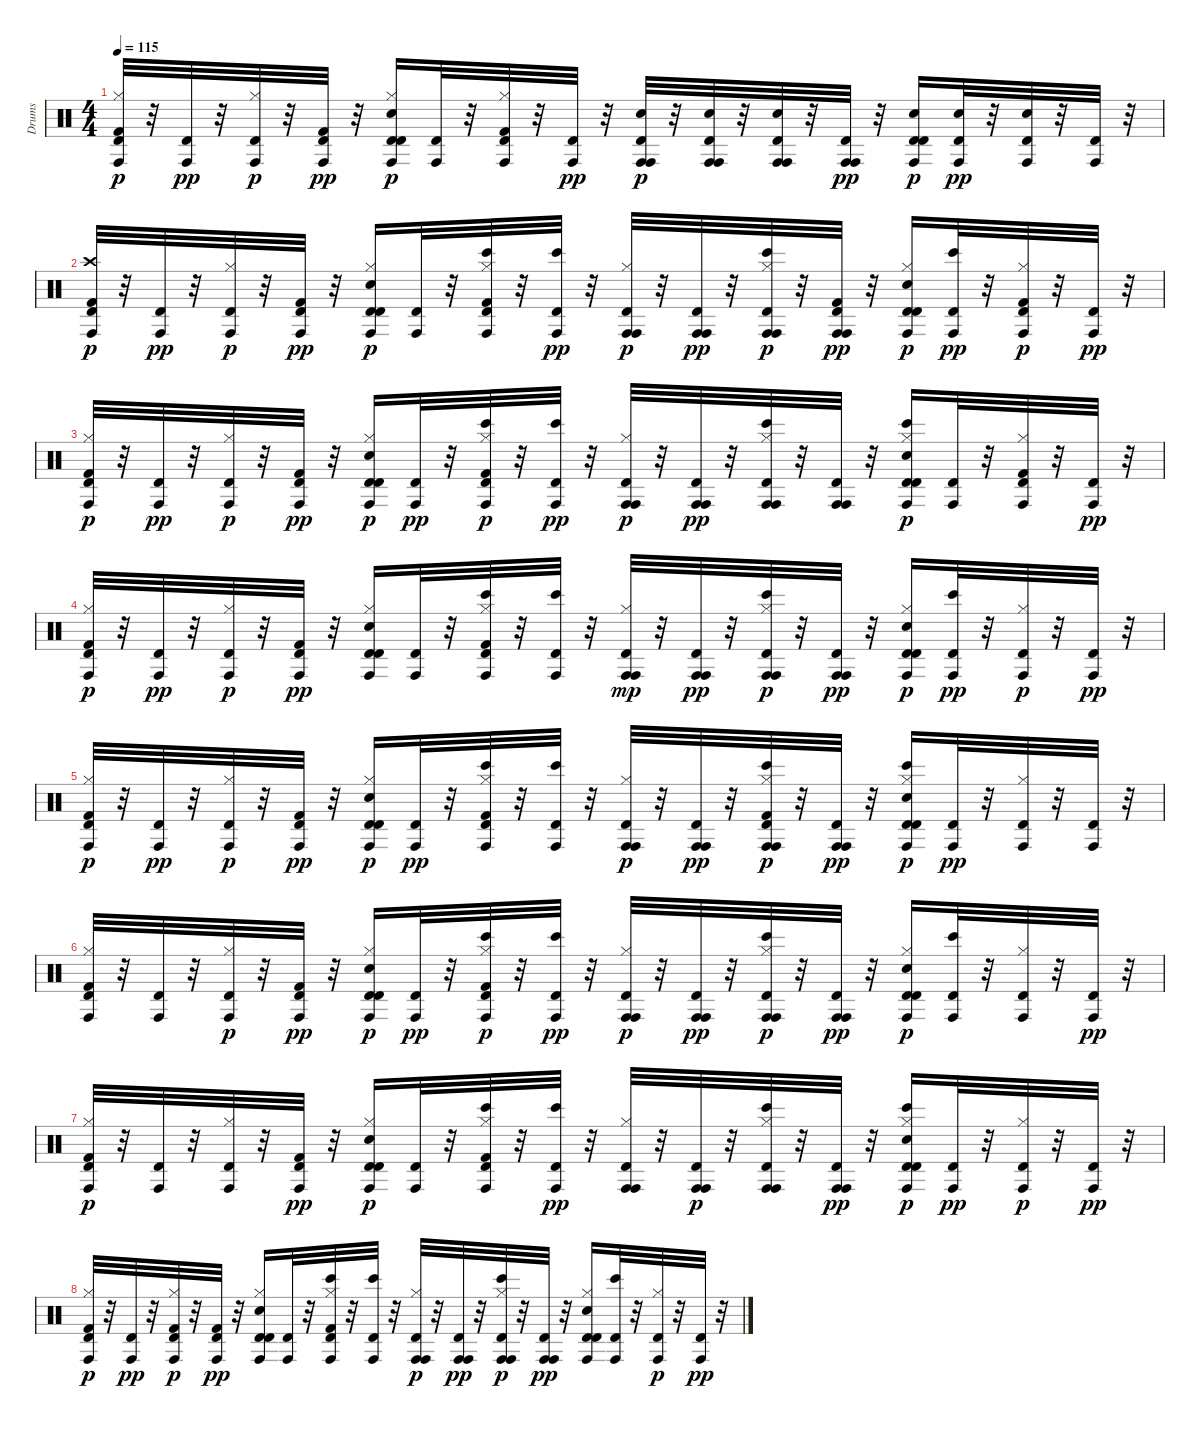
\track ("Drums" "Drums") {instrument percussion}
\staff {score}
\articulation defaults
\ts (4 4)
\tempo 115
\clef neutral
\ks c
("Conga high (hit)" "Hi-Hat (closed)" "Kick (hit) 2" "Timbale high (hit)").32{dy p} r.32 ("Conga high (hit)" "Timbale high (hit)").32{dy pp} r.32 ("Conga high (hit)" "Hi-Hat (closed)" "Timbale high (hit)").32{dy p} r.32 ("Conga high (hit)" "Kick (hit) 2" "Timbale high (hit)").32{dy pp} r.32 ("Conga high (hit)" "Timbale high (hit)" "Hi-Hat (closed)" "Electric Snare (hit)" "Timbale high (hit)").16{dy p} ("Conga high (hit)" "Timbale high (hit)").32 r.32 ("Conga high (hit)" "Hi-Hat (closed)" "Kick (hit) 2" "Timbale high (hit)").32 r.32 ("Conga high (hit)" "Timbale high (hit)").32{dy pp} r.32 ("Conga high (hit)" "Conga high (hit)" "Electric Snare (hit)" "Timbale high (hit)").32{dy p} r.32 ("Conga high (hit)" "Conga high (hit)" "Electric Snare (hit)" "Timbale high (hit)").32 r.32 ("Conga high (hit)" "Conga high (hit)" "Electric Snare (hit)" "Timbale high (hit)").32 r.32 ("Conga high (hit)" "Conga high (hit)" "Timbale high (hit)").32{dy pp} r.32 ("Conga high (hit)" "Timbale high (hit)" "Electric Snare (hit)" "Timbale high (hit)").16{dy p} ("Conga high (hit)" "Electric Snare (hit)" "Timbale high (hit)").32{dy pp} r.32 ("Conga high (hit)" "Electric Snare (hit)" "Timbale high (hit)").32 r.32 ("Conga high (hit)" "Timbale high (hit)").32 r.32 |
("Conga high (hit)" "Crash high (hit)" "Kick (hit) 2" "Timbale high (hit)").32{dy p} r.32 ("Conga high (hit)" "Timbale high (hit)").32{dy pp} r.32 ("Conga high (hit)" "Hi-Hat (closed)" "Timbale high (hit)").32{dy p} r.32 ("Conga high (hit)" "Kick (hit) 2" "Timbale high (hit)").32{dy pp} r.32 ("Conga high (hit)" "Timbale high (hit)" "Hi-Hat (closed)" "Electric Snare (hit)" "Timbale high (hit)").16{dy p} ("Conga high (hit)" "Timbale high (hit)").32 r.32 ("Conga high (hit)" "Bongo High (hit)" "Hi-Hat (closed)" "Kick (hit) 2" "Timbale high (hit)").32 r.32 ("Conga high (hit)" "Bongo High (hit)" "Timbale high (hit)").32{dy pp} r.32 ("Conga high (hit)" "Conga high (hit)" "Hi-Hat (closed)" "Timbale high (hit)").32{dy p} r.32 ("Conga high (hit)" "Conga high (hit)" "Timbale high (hit)").32{dy pp} r.32 ("Conga high (hit)" "Conga high (hit)" "Bongo High (hit)" "Hi-Hat (closed)" "Timbale high (hit)").32{dy p} r.32 ("Conga high (hit)" "Conga high (hit)" "Kick (hit) 2" "Timbale high (hit)").32{dy pp} r.32 ("Conga high (hit)" "Timbale high (hit)" "Hi-Hat (closed)" "Electric Snare (hit)" "Timbale high (hit)").16{dy p} ("Conga high (hit)" "Bongo High (hit)" "Timbale high (hit)").32{dy pp} r.32 ("Conga high (hit)" "Kick (hit) 2" "Hi-Hat (closed)" "Timbale high (hit)").32{dy p} r.32 ("Conga high (hit)" "Timbale high (hit)").32{dy pp} r.32 |
("Conga high (hit)" "Hi-Hat (closed)" "Kick (hit) 2" "Timbale high (hit)").32{dy p} r.32 ("Conga high (hit)" "Timbale high (hit)").32{dy pp} r.32 ("Conga high (hit)" "Hi-Hat (closed)" "Timbale high (hit)").32{dy p} r.32 ("Conga high (hit)" "Kick (hit) 2" "Timbale high (hit)").32{dy pp} r.32 ("Conga high (hit)" "Timbale high (hit)" "Hi-Hat (closed)" "Electric Snare (hit)" "Timbale high (hit)").16{dy p} ("Conga high (hit)" "Timbale high (hit)").32{dy pp} r.32 ("Conga high (hit)" "Bongo High (hit)" "Hi-Hat (closed)" "Kick (hit) 2" "Timbale high (hit)").32{dy p} r.32 ("Conga high (hit)" "Bongo High (hit)" "Timbale high (hit)").32{dy pp} r.32 ("Conga high (hit)" "Conga high (hit)" "Hi-Hat (closed)" "Timbale high (hit)").32{dy p} r.32 ("Conga high (hit)" "Conga high (hit)" "Timbale high (hit)").32{dy pp} r.32 ("Conga high (hit)" "Conga high (hit)" "Bongo High (hit)" "Hi-Hat (closed)" "Timbale high (hit)").32 r.32 ("Conga high (hit)" "Conga high (hit)" "Timbale high (hit)").32 r.32 ("Conga high (hit)" "Bongo High (hit)" "Timbale high (hit)" "Hi-Hat (closed)" "Electric Snare (hit)" "Timbale high (hit)").16{dy p} ("Conga high (hit)" "Timbale high (hit)").32 r.32 ("Conga high (hit)" "Kick (hit) 2" "Hi-Hat (closed)" "Timbale high (hit)").32 r.32 ("Conga high (hit)" "Timbale high (hit)").32{dy pp} r.32 |
("Conga high (hit)" "Hi-Hat (closed)" "Kick (hit) 2" "Timbale high (hit)").32{dy p} r.32 ("Conga high (hit)" "Timbale high (hit)").32{dy pp} r.32 ("Conga high (hit)" "Hi-Hat (closed)" "Timbale high (hit)").32{dy p} r.32 ("Conga high (hit)" "Kick (hit) 2" "Timbale high (hit)").32{dy pp} r.32 ("Conga high (hit)" "Timbale high (hit)" "Hi-Hat (closed)" "Electric Snare (hit)" "Timbale high (hit)").16 ("Conga high (hit)" "Timbale high (hit)").32 r.32 ("Conga high (hit)" "Bongo High (hit)" "Hi-Hat (closed)" "Kick (hit) 2" "Timbale high (hit)").32 r.32 ("Conga high (hit)" "Bongo High (hit)" "Timbale high (hit)").32 r.32 ("Conga high (hit)" "Conga high (hit)" "Hi-Hat (closed)" "Timbale high (hit)").32{dy mp} r.32 ("Conga high (hit)" "Conga high (hit)" "Timbale high (hit)").32{dy pp} r.32 ("Conga high (hit)" "Conga high (hit)" "Bongo High (hit)" "Hi-Hat (closed)" "Timbale high (hit)").32{dy p} r.32 ("Conga high (hit)" "Conga high (hit)" "Timbale high (hit)").32{dy pp} r.32 ("Conga high (hit)" "Timbale high (hit)" "Hi-Hat (closed)" "Electric Snare (hit)" "Timbale high (hit)").16{dy p} ("Conga high (hit)" "Bongo High (hit)" "Timbale high (hit)").32{dy pp} r.32 ("Conga high (hit)" "Hi-Hat (closed)" "Timbale high (hit)").32{dy p} r.32 ("Conga high (hit)" "Timbale high (hit)").32{dy pp} r.32 |
("Conga high (hit)" "Hi-Hat (closed)" "Kick (hit) 2" "Timbale high (hit)").32{dy p} r.32 ("Conga high (hit)" "Timbale high (hit)").32{dy pp} r.32 ("Conga high (hit)" "Hi-Hat (closed)" "Timbale high (hit)").32{dy p} r.32 ("Conga high (hit)" "Kick (hit) 2" "Timbale high (hit)").32{dy pp} r.32 ("Conga high (hit)" "Timbale high (hit)" "Hi-Hat (closed)" "Electric Snare (hit)" "Timbale high (hit)").16{dy p} ("Conga high (hit)" "Timbale high (hit)").32{dy pp} r.32 ("Conga high (hit)" "Bongo High (hit)" "Hi-Hat (closed)" "Kick (hit) 2" "Timbale high (hit)").32 r.32 ("Conga high (hit)" "Bongo High (hit)" "Timbale high (hit)").32 r.32 ("Conga high (hit)" "Conga high (hit)" "Hi-Hat (closed)" "Timbale high (hit)").32{dy p} r.32 ("Conga high (hit)" "Conga high (hit)" "Timbale high (hit)").32{dy pp} r.32 ("Conga high (hit)" "Conga high (hit)" "Bongo High (hit)" "Kick (hit) 2" "Hi-Hat (closed)" "Timbale high (hit)").32{dy p} r.32 ("Conga high (hit)" "Conga high (hit)" "Timbale high (hit)").32{dy pp} r.32 ("Conga high (hit)" "Bongo High (hit)" "Timbale high (hit)" "Hi-Hat (closed)" "Electric Snare (hit)" "Timbale high (hit)").16{dy p} ("Conga high (hit)" "Timbale high (hit)").32{dy pp} r.32 ("Conga high (hit)" "Hi-Hat (closed)" "Timbale high (hit)").32 r.32 ("Conga high (hit)" "Timbale high (hit)").32 r.32 |
("Conga high (hit)" "Hi-Hat (closed)" "Kick (hit) 2" "Timbale high (hit)").32 r.32 ("Conga high (hit)" "Timbale high (hit)").32 r.32 ("Conga high (hit)" "Hi-Hat (closed)" "Timbale high (hit)").32{dy p} r.32 ("Conga high (hit)" "Kick (hit) 2" "Timbale high (hit)").32{dy pp} r.32 ("Conga high (hit)" "Timbale high (hit)" "Hi-Hat (closed)" "Electric Snare (hit)" "Timbale high (hit)").16{dy p} ("Conga high (hit)" "Timbale high (hit)").32{dy pp} r.32 ("Conga high (hit)" "Bongo High (hit)" "Hi-Hat (closed)" "Kick (hit) 2" "Timbale high (hit)").32{dy p} r.32 ("Conga high (hit)" "Bongo High (hit)" "Timbale high (hit)").32{dy pp} r.32 ("Conga high (hit)" "Conga high (hit)" "Hi-Hat (closed)" "Timbale high (hit)").32{dy p} r.32 ("Conga high (hit)" "Conga high (hit)" "Timbale high (hit)").32{dy pp} r.32 ("Conga high (hit)" "Conga high (hit)" "Bongo High (hit)" "Hi-Hat (closed)" "Timbale high (hit)").32{dy p} r.32 ("Conga high (hit)" "Conga high (hit)" "Timbale high (hit)").32{dy pp} r.32 ("Conga high (hit)" "Timbale high (hit)" "Hi-Hat (closed)" "Electric Snare (hit)" "Timbale high (hit)").16{dy p} ("Conga high (hit)" "Bongo High (hit)" "Timbale high (hit)").32 r.32 ("Conga high (hit)" "Hi-Hat (closed)" "Timbale high (hit)").32 r.32 ("Conga high (hit)" "Timbale high (hit)").32{dy pp} r.32 |
("Conga high (hit)" "Hi-Hat (closed)" "Kick (hit) 2" "Timbale high (hit)").32{dy p} r.32 ("Conga high (hit)" "Timbale high (hit)").32 r.32 ("Conga high (hit)" "Hi-Hat (closed)" "Timbale high (hit)").32 r.32 ("Conga high (hit)" "Kick (hit) 2" "Timbale high (hit)").32{dy pp} r.32 ("Conga high (hit)" "Timbale high (hit)" "Hi-Hat (closed)" "Electric Snare (hit)" "Timbale high (hit)").16{dy p} ("Conga high (hit)" "Timbale high (hit)").32 r.32 ("Conga high (hit)" "Bongo High (hit)" "Hi-Hat (closed)" "Kick (hit) 2" "Timbale high (hit)").32 r.32 ("Conga high (hit)" "Bongo High (hit)" "Timbale high (hit)").32{dy pp} r.32 ("Conga high (hit)" "Conga high (hit)" "Hi-Hat (closed)" "Timbale high (hit)").32 r.32 ("Conga high (hit)" "Conga high (hit)" "Timbale high (hit)").32{dy p} r.32 ("Conga high (hit)" "Conga high (hit)" "Bongo High (hit)" "Hi-Hat (closed)" "Timbale high (hit)").32 r.32 ("Conga high (hit)" "Conga high (hit)" "Timbale high (hit)").32{dy pp} r.32 ("Conga high (hit)" "Bongo High (hit)" "Timbale high (hit)" "Hi-Hat (closed)" "Electric Snare (hit)" "Timbale high (hit)").16{dy p} ("Conga high (hit)" "Timbale high (hit)").32{dy pp} r.32 ("Conga high (hit)" "Hi-Hat (closed)" "Timbale high (hit)").32{dy p} r.32 ("Conga high (hit)" "Timbale high (hit)").32{dy pp} r.32 |
("Conga high (hit)" "Hi-Hat (closed)" "Kick (hit) 2" "Timbale high (hit)").32{dy p} r.32 ("Conga high (hit)" "Timbale high (hit)").32{dy pp} r.32 ("Conga high (hit)" "Kick (hit) 2" "Hi-Hat (closed)" "Timbale high (hit)").32{dy p} r.32 ("Conga high (hit)" "Kick (hit) 2" "Timbale high (hit)").32{dy pp} r.32 ("Conga high (hit)" "Timbale high (hit)" "Hi-Hat (closed)" "Electric Snare (hit)" "Timbale high (hit)").16 ("Conga high (hit)" "Timbale high (hit)").32 r.32 ("Conga high (hit)" "Bongo High (hit)" "Hi-Hat (closed)" "Kick (hit) 2" "Timbale high (hit)").32 r.32 ("Conga high (hit)" "Bongo High (hit)" "Timbale high (hit)").32 r.32 ("Conga high (hit)" "Conga high (hit)" "Hi-Hat (closed)" "Timbale high (hit)").32{dy p} r.32 ("Conga high (hit)" "Conga high (hit)" "Timbale high (hit)").32{dy pp} r.32 ("Conga high (hit)" "Conga high (hit)" "Bongo High (hit)" "Hi-Hat (closed)" "Timbale high (hit)").32{dy p} r.32 ("Conga high (hit)" "Conga high (hit)" "Timbale high (hit)").32{dy pp} r.32 ("Conga high (hit)" "Timbale high (hit)" "Hi-Hat (closed)" "Electric Snare (hit)" "Timbale high (hit)").16 ("Conga high (hit)" "Bongo High (hit)" "Timbale high (hit)").32 r.32 ("Conga high (hit)" "Hi-Hat (closed)" "Timbale high (hit)").32{dy p} r.32 ("Conga high (hit)" "Timbale high (hit)").32{dy pp} r.32
